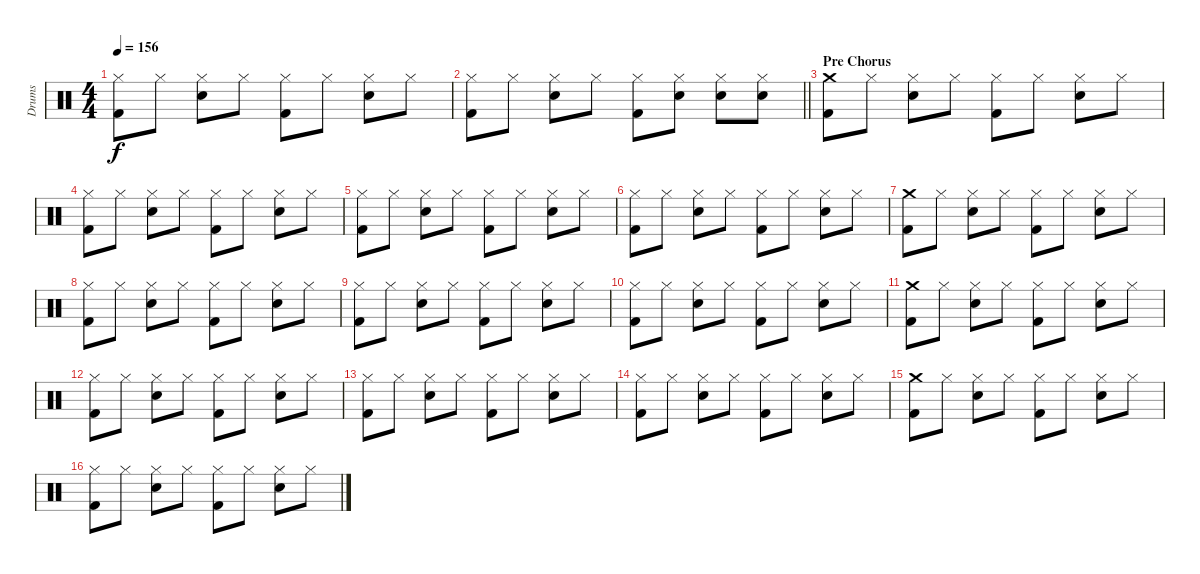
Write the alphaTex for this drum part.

\track ("Drums" "Drums") {instrument percussion}
\staff {score}
\articulation defaults
\ts (4 4)
\tempo 156
\clef neutral
\ks c
("Hi-Hat (closed)" "Kick (hit) 2").8{dy f} "Hi-Hat (closed)".8 ("Hi-Hat (closed)" "Electric Snare (hit)").8 "Hi-Hat (closed)".8 ("Hi-Hat (closed)" "Kick (hit) 2").8 "Hi-Hat (closed)".8 ("Hi-Hat (closed)" "Electric Snare (hit)").8 "Hi-Hat (closed)".8 |
\barLineRight lightlight
("Hi-Hat (closed)" "Kick (hit) 2").8 "Hi-Hat (closed)".8 ("Hi-Hat (closed)" "Electric Snare (hit)").8 "Hi-Hat (closed)".8 ("Hi-Hat (closed)" "Kick (hit) 2").8 ("Hi-Hat (closed)" "Electric Snare (hit)").8 ("Hi-Hat (closed)" "Electric Snare (hit)").8 ("Hi-Hat (closed)" "Electric Snare (hit)").8 |
\section ("" "Pre Chorus")
("Crash medium (hit)" "Kick (hit) 2").8 "Hi-Hat (closed)".8 ("Hi-Hat (closed)" "Electric Snare (hit)").8 "Hi-Hat (closed)".8 ("Hi-Hat (closed)" "Kick (hit) 2").8 "Hi-Hat (closed)".8 ("Hi-Hat (closed)" "Electric Snare (hit)").8 "Hi-Hat (closed)".8 |
("Hi-Hat (closed)" "Kick (hit) 2").8 "Hi-Hat (closed)".8 ("Hi-Hat (closed)" "Electric Snare (hit)").8 "Hi-Hat (closed)".8 ("Hi-Hat (closed)" "Kick (hit) 2").8 "Hi-Hat (closed)".8 ("Hi-Hat (closed)" "Electric Snare (hit)").8 "Hi-Hat (closed)".8 |
("Hi-Hat (closed)" "Kick (hit) 2").8 "Hi-Hat (closed)".8 ("Hi-Hat (closed)" "Electric Snare (hit)").8 "Hi-Hat (closed)".8 ("Hi-Hat (closed)" "Kick (hit) 2").8 "Hi-Hat (closed)".8 ("Hi-Hat (closed)" "Electric Snare (hit)").8 "Hi-Hat (closed)".8 |
("Hi-Hat (closed)" "Kick (hit) 2").8 "Hi-Hat (closed)".8 ("Hi-Hat (closed)" "Electric Snare (hit)").8 "Hi-Hat (closed)".8 ("Hi-Hat (closed)" "Kick (hit) 2").8 "Hi-Hat (closed)".8 ("Hi-Hat (closed)" "Electric Snare (hit)").8 "Hi-Hat (closed)".8 |
("Crash medium (hit)" "Kick (hit) 2").8 "Hi-Hat (closed)".8 ("Hi-Hat (closed)" "Electric Snare (hit)").8 "Hi-Hat (closed)".8 ("Hi-Hat (closed)" "Kick (hit) 2").8 "Hi-Hat (closed)".8 ("Hi-Hat (closed)" "Electric Snare (hit)").8 "Hi-Hat (closed)".8 |
("Hi-Hat (closed)" "Kick (hit) 2").8 "Hi-Hat (closed)".8 ("Hi-Hat (closed)" "Electric Snare (hit)").8 "Hi-Hat (closed)".8 ("Hi-Hat (closed)" "Kick (hit) 2").8 "Hi-Hat (closed)".8 ("Hi-Hat (closed)" "Electric Snare (hit)").8 "Hi-Hat (closed)".8 |
("Hi-Hat (closed)" "Kick (hit) 2").8 "Hi-Hat (closed)".8 ("Hi-Hat (closed)" "Electric Snare (hit)").8 "Hi-Hat (closed)".8 ("Hi-Hat (closed)" "Kick (hit) 2").8 "Hi-Hat (closed)".8 ("Hi-Hat (closed)" "Electric Snare (hit)").8 "Hi-Hat (closed)".8 |
("Hi-Hat (closed)" "Kick (hit) 2").8 "Hi-Hat (closed)".8 ("Hi-Hat (closed)" "Electric Snare (hit)").8 "Hi-Hat (closed)".8 ("Hi-Hat (closed)" "Kick (hit) 2").8 "Hi-Hat (closed)".8 ("Hi-Hat (closed)" "Electric Snare (hit)").8 "Hi-Hat (closed)".8 |
("Crash medium (hit)" "Kick (hit) 2").8 "Hi-Hat (closed)".8 ("Hi-Hat (closed)" "Electric Snare (hit)").8 "Hi-Hat (closed)".8 ("Hi-Hat (closed)" "Kick (hit) 2").8 "Hi-Hat (closed)".8 ("Hi-Hat (closed)" "Electric Snare (hit)").8 "Hi-Hat (closed)".8 |
("Hi-Hat (closed)" "Kick (hit) 2").8 "Hi-Hat (closed)".8 ("Hi-Hat (closed)" "Electric Snare (hit)").8 "Hi-Hat (closed)".8 ("Hi-Hat (closed)" "Kick (hit) 2").8 "Hi-Hat (closed)".8 ("Hi-Hat (closed)" "Electric Snare (hit)").8 "Hi-Hat (closed)".8 |
("Hi-Hat (closed)" "Kick (hit) 2").8 "Hi-Hat (closed)".8 ("Hi-Hat (closed)" "Electric Snare (hit)").8 "Hi-Hat (closed)".8 ("Hi-Hat (closed)" "Kick (hit) 2").8 "Hi-Hat (closed)".8 ("Hi-Hat (closed)" "Electric Snare (hit)").8 "Hi-Hat (closed)".8 |
("Hi-Hat (closed)" "Kick (hit) 2").8 "Hi-Hat (closed)".8 ("Hi-Hat (closed)" "Electric Snare (hit)").8 "Hi-Hat (closed)".8 ("Hi-Hat (closed)" "Kick (hit) 2").8 "Hi-Hat (closed)".8 ("Hi-Hat (closed)" "Electric Snare (hit)").8 "Hi-Hat (closed)".8 |
("Crash medium (hit)" "Kick (hit) 2").8 "Hi-Hat (closed)".8 ("Hi-Hat (closed)" "Electric Snare (hit)").8 "Hi-Hat (closed)".8 ("Hi-Hat (closed)" "Kick (hit) 2").8 "Hi-Hat (closed)".8 ("Hi-Hat (closed)" "Electric Snare (hit)").8 "Hi-Hat (closed)".8 |
("Hi-Hat (closed)" "Kick (hit) 2").8 "Hi-Hat (closed)".8 ("Hi-Hat (closed)" "Electric Snare (hit)").8 "Hi-Hat (closed)".8 ("Hi-Hat (closed)" "Kick (hit) 2").8 "Hi-Hat (closed)".8 ("Hi-Hat (closed)" "Electric Snare (hit)").8 "Hi-Hat (closed)".8
